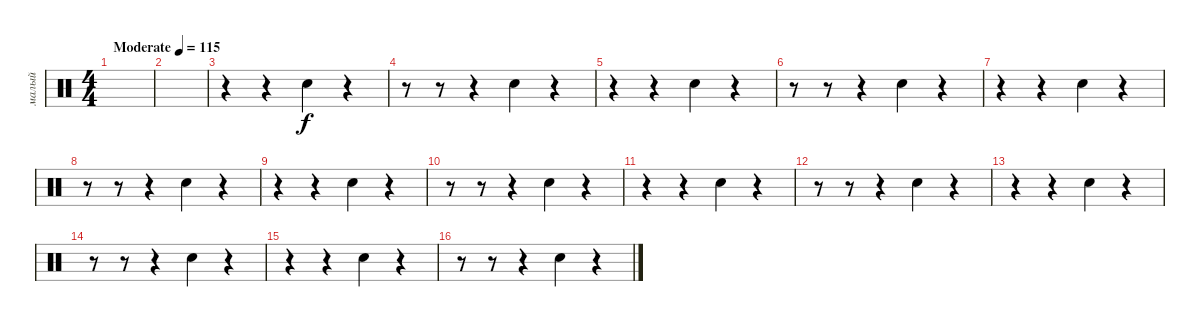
\track ("малый" "малый") {mute instrument percussion}
\staff {score}
\articulation defaults
\ts (4 4)
\tempo (115 "Moderate")
\clef neutral
\ks c
|
|
r.4 r.4 "Electric Snare (hit)".4 r.4 |
r.8 r.8 r.4 "Electric Snare (hit)".4 r.4 |
r.4 r.4 "Electric Snare (hit)".4 r.4 |
r.8 r.8 r.4 "Electric Snare (hit)".4 r.4 |
r.4 r.4 "Electric Snare (hit)".4 r.4 |
r.8 r.8 r.4 "Electric Snare (hit)".4 r.4 |
r.4 r.4 "Electric Snare (hit)".4 r.4 |
r.8 r.8 r.4 "Electric Snare (hit)".4 r.4 |
r.4 r.4 "Electric Snare (hit)".4 r.4 |
r.8 r.8 r.4 "Electric Snare (hit)".4 r.4 |
r.4 r.4 "Electric Snare (hit)".4 r.4 |
r.8 r.8 r.4 "Electric Snare (hit)".4 r.4 |
r.4 r.4 "Electric Snare (hit)".4 r.4 |
r.8 r.8 r.4 "Electric Snare (hit)".4 r.4
